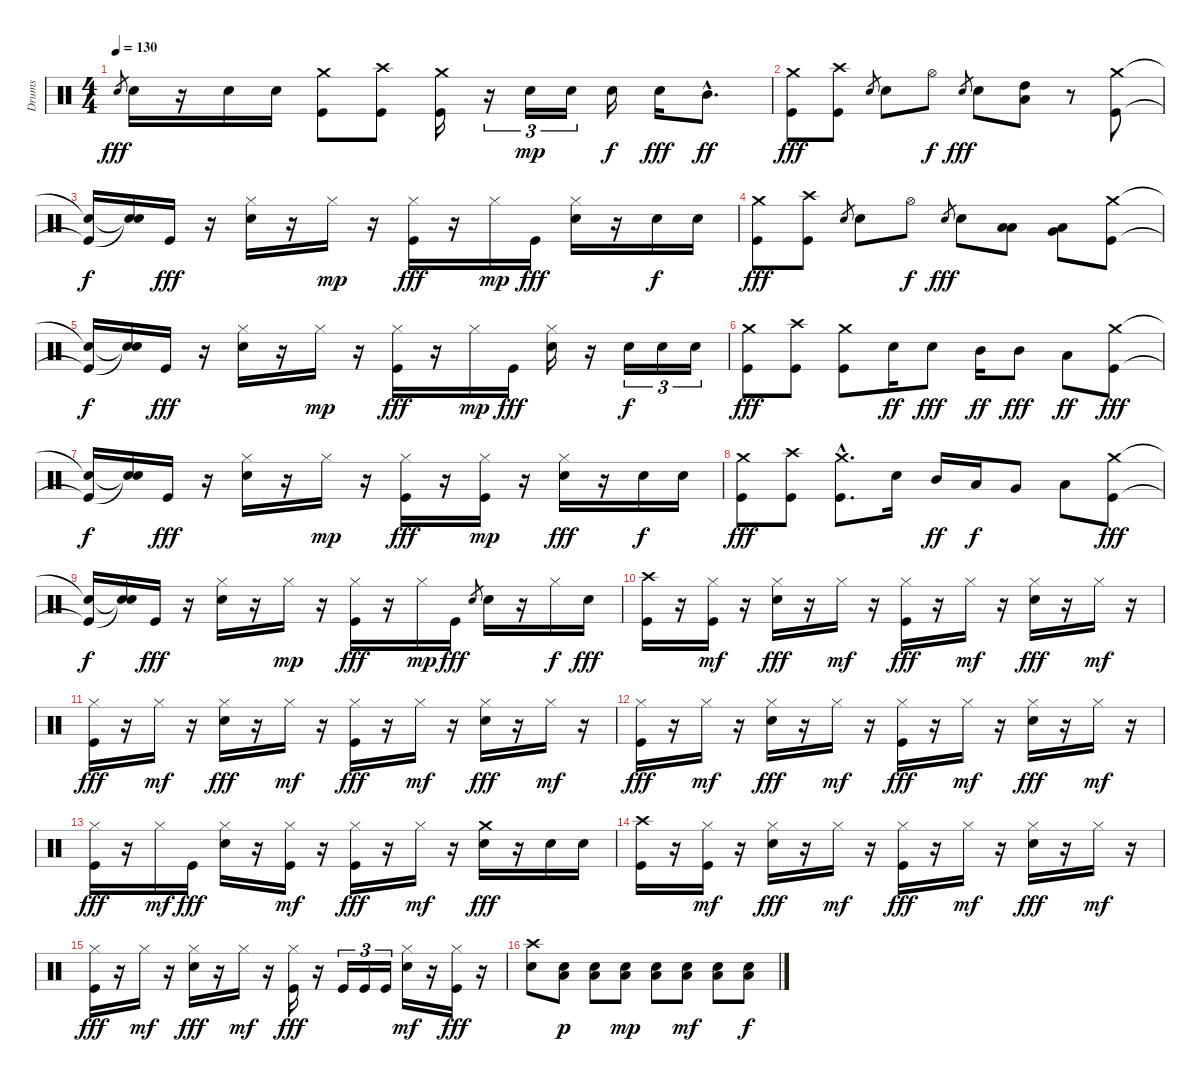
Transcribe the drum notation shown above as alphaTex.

\track ("Drums" "Drums") {instrument percussion}
\staff {score}
\articulation defaults
\ts (4 4)
\tempo 130
\clef neutral
\ks c "Electric Snare (hit)".8{gr dy fff} "Electric Snare (hit)".16
r.16 "Electric Snare (hit)".16 "Electric Snare (hit)".16 ("Kick (hit)" "Crash medium (hit)").8 ("Kick (hit)" "Crash high (hit)").8 ("Kick (hit)" "Crash medium (hit)").16 r.16{tu (3 2)} "Electric Snare (hit)".16{tu (3 2) dy mp} "Electric Snare (hit)".16{tu (3 2)} "Electric Snare (hit)".16{dy f} "Electric Snare (hit)".16{dy fff} "Mid Tom (hit)"{hac}.8{d dy ff} |
("Kick (hit)" "Crash medium (hit)").8{dy fff} ("Kick (hit)" "Crash high (hit)").8 "Electric Snare (hit)".8{gr} "Electric Snare (hit)".8 "Hi-Hat (open)".8{dy f} "Electric Snare (hit)".8{gr dy fff} "Electric Snare (hit)".8 ("High Tom (hit)" "Low Floor Tom (hit)").8 r.8 ("Kick (hit)" "Crash medium (hit)").8 |
("Kick (hit)"{t} "Snare (hit)"{t}).16{dy f} ("Snare (hit)"{t} "Snare (hit)"{t}).16 "Kick (hit)".16{dy fff} r.16 ("Electric Snare (hit)" "Hi-Hat (closed)").16 r.16 "Hi-Hat (closed)".16{dy mp} r.16 ("Kick (hit)" "Hi-Hat (closed)").16{dy fff} r.16 "Hi-Hat (closed)".16{dy mp} "Kick (hit)".16{dy fff} ("Electric Snare (hit)" "Hi-Hat (closed)").16 r.16 "Electric Snare (hit)".16{dy f} "Electric Snare (hit)".16 |
("Kick (hit)" "Crash medium (hit)").8{dy fff} ("Kick (hit)" "Crash high (hit)").8 "Electric Snare (hit)".8{gr} "Electric Snare (hit)".8 "Hi-Hat (open)".8{dy f} "Electric Snare (hit)".8{gr dy fff} "Electric Snare (hit)".8 ("Low Tom (hit)" "Low Floor Tom (hit)").8 ("Very Low Tom (hit)" "Low Floor Tom (hit)").8 ("Kick (hit)" "Crash medium (hit)").8 |
("Kick (hit)"{t} "Snare (hit)"{t}).16{dy f} ("Snare (hit)"{t} "Snare (hit)"{t}).16 "Kick (hit)".16{dy fff} r.16 ("Electric Snare (hit)" "Hi-Hat (closed)").16 r.16 "Hi-Hat (closed)".16{dy mp} r.16 ("Kick (hit)" "Hi-Hat (closed)").16{dy fff} r.16 "Hi-Hat (closed)".16{dy mp} "Kick (hit)".16{dy fff} ("Electric Snare (hit)" "Hi-Hat (closed)").16 r.16 "Electric Snare (hit)".16{tu (3 2) dy f} "Electric Snare (hit)".16{tu (3 2)} "Electric Snare (hit)".16{tu (3 2)} |
("Kick (hit)" "Crash medium (hit)").8{dy fff} ("Kick (hit)" "Crash high (hit)").8 ("Kick (hit)" "Crash medium (hit)").8 "Electric Snare (hit)".16{dy ff} "Electric Snare (hit)".8{dy fff} "Mid Tom (hit)".16{dy ff} "Mid Tom (hit)".8{dy fff} "Low Floor Tom (hit)".8{dy ff} ("Kick (hit)" "Crash medium (hit)").8{dy fff} |
("Kick (hit)"{t} "Snare (hit)"{t}).16{dy f} ("Snare (hit)"{t} "Snare (hit)"{t}).16 "Kick (hit)".16{dy fff} r.16 ("Electric Snare (hit)" "Hi-Hat (closed)").16 r.16 "Hi-Hat (closed)".16{dy mp} r.16 ("Kick (hit)" "Hi-Hat (closed)").16{dy fff} r.16 ("Kick (hit)" "Hi-Hat (closed)").16{dy mp} r.16 ("Electric Snare (hit)" "Hi-Hat (closed)").16{dy fff} r.16 "Electric Snare (hit)".16{dy f} "Electric Snare (hit)".16 |
("Kick (hit)" "Crash medium (hit)").8{dy fff} ("Kick (hit)" "Crash high (hit)").8 ("Kick (hit)"{hac} "Crash medium (hit)"{hac}).8{d} "Electric Snare (hit)".16 "Mid Tom (hit)".16{dy ff} "Low Tom (hit)".16{dy f} "Very Low Tom (hit)".8 "Low Floor Tom (hit)".8 ("Kick (hit)" "Crash medium (hit)").8{dy fff} |
("Kick (hit)"{t} "Snare (hit)"{t}).16{dy f} ("Snare (hit)"{t} "Snare (hit)"{t}).16 "Kick (hit)".16{dy fff} r.16 ("Electric Snare (hit)" "Hi-Hat (closed)").16 r.16 "Hi-Hat (closed)".16{dy mp} r.16 ("Kick (hit)" "Hi-Hat (closed)").16{dy fff} r.16 "Hi-Hat (closed)".16{dy mp} "Kick (hit)".16{dy fff} "Electric Snare (hit)".8{gr} "Electric Snare (hit)".16 r.16 "Hi-Hat (closed)".16{dy f} "Electric Snare (hit)".16{dy fff} |
("Kick (hit)" "Crash high (hit)").16 r.16 ("Kick (hit)" "Hi-Hat (closed)").16{dy mf} r.16 ("Electric Snare (hit)" "Hi-Hat (closed)").16{dy fff} r.16 "Hi-Hat (closed)".16{dy mf} r.16 ("Kick (hit)" "Hi-Hat (closed)").16{dy fff} r.16 "Hi-Hat (closed)".16{dy mf} r.16 ("Electric Snare (hit)" "Hi-Hat (closed)").16{dy fff} r.16 "Hi-Hat (closed)".16{dy mf} r.16 |
("Kick (hit)" "Hi-Hat (closed)").16{dy fff} r.16 "Hi-Hat (closed)".16{dy mf} r.16 ("Electric Snare (hit)" "Hi-Hat (closed)").16{dy fff} r.16 "Hi-Hat (closed)".16{dy mf} r.16 ("Kick (hit)" "Hi-Hat (closed)").16{dy fff} r.16 "Hi-Hat (closed)".16{dy mf} r.16 ("Electric Snare (hit)" "Hi-Hat (closed)").16{dy fff} r.16 "Hi-Hat (closed)".16{dy mf} r.16 |
("Kick (hit)" "Hi-Hat (closed)").16{dy fff} r.16 "Hi-Hat (closed)".16{dy mf} r.16 ("Electric Snare (hit)" "Hi-Hat (closed)").16{dy fff} r.16 "Hi-Hat (closed)".16{dy mf} r.16 ("Kick (hit)" "Hi-Hat (closed)").16{dy fff} r.16 "Hi-Hat (closed)".16{dy mf} r.16 ("Electric Snare (hit)" "Hi-Hat (closed)").16{dy fff} r.16 "Hi-Hat (closed)".16{dy mf} r.16 |
("Kick (hit)" "Hi-Hat (closed)").16{dy fff} r.16 "Hi-Hat (closed)".16{dy mf} "Kick (hit)".16{dy fff} ("Electric Snare (hit)" "Hi-Hat (closed)").16 r.16 ("Kick (hit)" "Hi-Hat (closed)").16{dy mf} r.16 ("Kick (hit)" "Hi-Hat (closed)").16{dy fff} r.16 "Hi-Hat (closed)".16{dy mf} r.16 ("Electric Snare (hit)" "Crash medium (hit)").16{dy fff} r.16 "Electric Snare (hit)".16 "Electric Snare (hit)".16 |
("Kick (hit)" "Crash high (hit)").16 r.16 ("Kick (hit)" "Hi-Hat (closed)").16{dy mf} r.16 ("Electric Snare (hit)" "Hi-Hat (closed)").16{dy fff} r.16 "Hi-Hat (closed)".16{dy mf} r.16 ("Kick (hit)" "Hi-Hat (closed)").16{dy fff} r.16 "Hi-Hat (closed)".16{dy mf} r.16 ("Electric Snare (hit)" "Hi-Hat (closed)").16{dy fff} r.16 "Hi-Hat (closed)".16{dy mf} r.16 |
("Kick (hit)" "Hi-Hat (closed)").16{dy fff} r.16 "Hi-Hat (closed)".16{dy mf} r.16 ("Electric Snare (hit)" "Hi-Hat (closed)").16{dy fff} r.16 "Hi-Hat (closed)".16{dy mf} r.16 ("Kick (hit)" "Hi-Hat (closed)").16{dy fff} r.16 "Kick (hit)".16{tu (3 2)} "Kick (hit)".16{tu (3 2)} "Kick (hit)".16{tu (3 2)} ("Electric Snare (hit)" "Hi-Hat (closed)").16{dy mf} r.16 ("Kick (hit)" "Hi-Hat (closed)").16{dy fff} r.16 |
("Electric Snare (hit)" "Crash high (hit)").8 ("Low Floor Tom (hit)" "Electric Snare (hit)").8{dy p} ("Low Floor Tom (hit)" "Electric Snare (hit)").8 ("Low Floor Tom (hit)" "Electric Snare (hit)").8{dy mp} ("Low Floor Tom (hit)" "Electric Snare (hit)").8 ("Low Floor Tom (hit)" "Electric Snare (hit)").8{dy mf} ("Low Floor Tom (hit)" "Electric Snare (hit)").8 ("Low Floor Tom (hit)" "Electric Snare (hit)").8{dy f}
